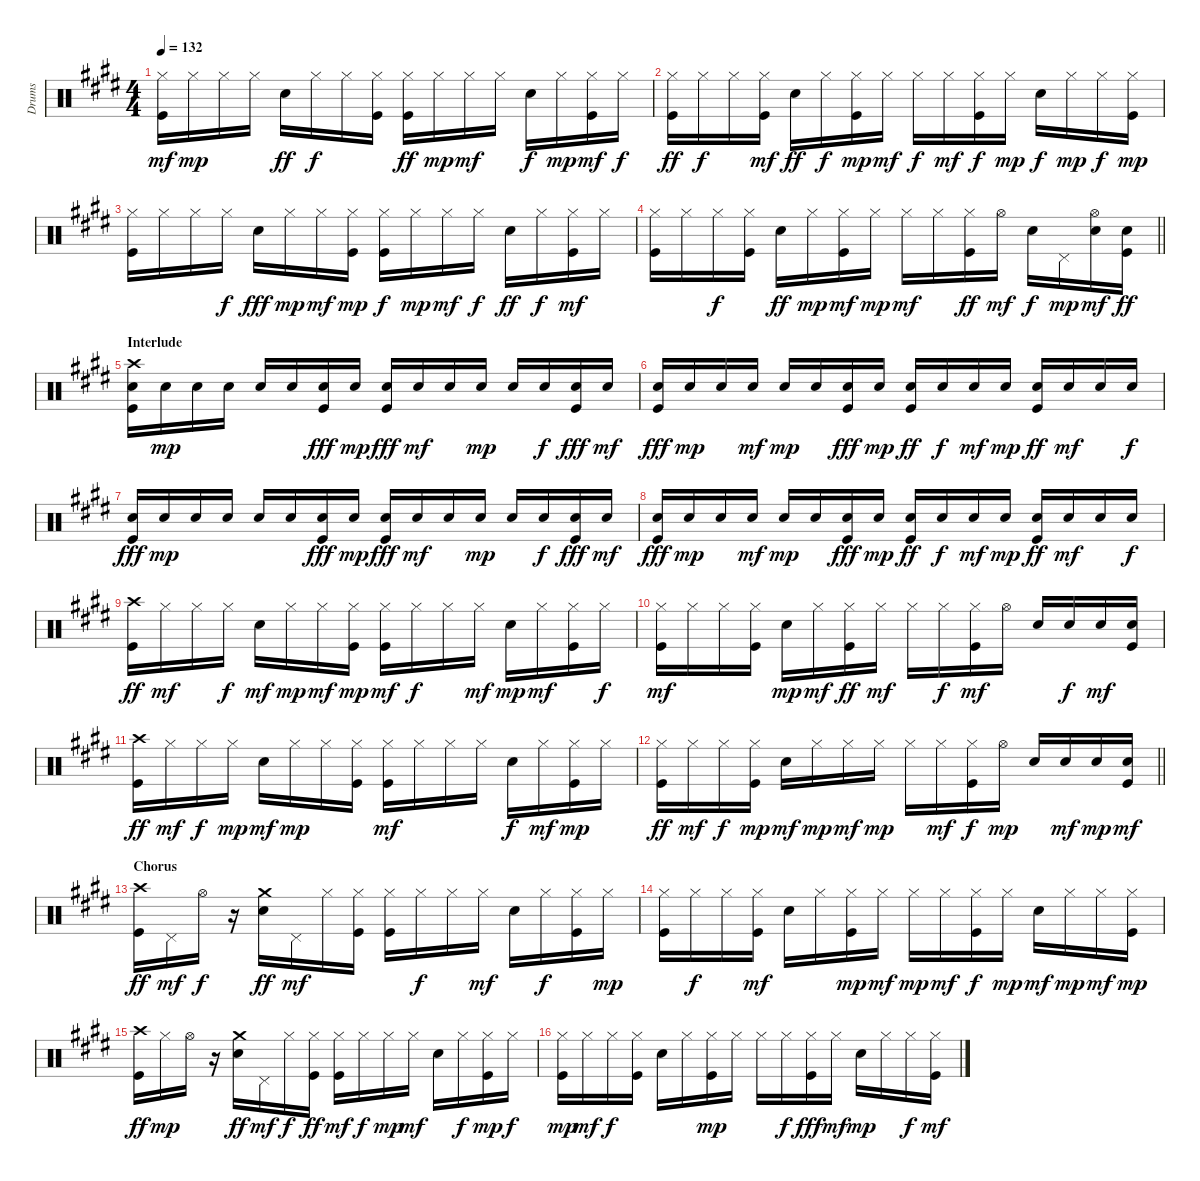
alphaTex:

\track ("Drums" "Drums") {instrument percussion}
\staff {score}
\articulation defaults
\ts (4 4)
\tempo 132
\clef neutral
\ks e
("Kick (hit)" "Hi-Hat (closed)").16{dy mf} "Hi-Hat (closed)".16{dy mp} "Hi-Hat (closed)".16 "Hi-Hat (closed)".16 "Snare (hit) 2".16{dy ff} "Hi-Hat (closed)".16{dy f} "Hi-Hat (closed)".16 ("Kick (hit)" "Hi-Hat (closed)").16 ("Kick (hit)" "Hi-Hat (closed)").16{dy ff} "Hi-Hat (closed)".16{dy mp} "Hi-Hat (closed)".16{dy mf} "Hi-Hat (closed)".16 "Snare (hit) 2".16{dy f} "Hi-Hat (closed)".16{dy mp} ("Kick (hit)" "Hi-Hat (closed)").16{dy mf} "Hi-Hat (closed)".16{dy f} |
("Kick (hit)" "Hi-Hat (closed)").16{dy ff} "Hi-Hat (closed)".16{dy f} "Hi-Hat (closed)".16 ("Kick (hit)" "Hi-Hat (closed)").16{dy mf} "Snare (hit) 2".16{dy ff} "Hi-Hat (closed)".16{dy f} ("Kick (hit)" "Hi-Hat (closed)").16{dy mp} "Hi-Hat (closed)".16{dy mf} "Hi-Hat (closed)".16{dy f} "Hi-Hat (closed)".16{dy mf} ("Kick (hit)" "Hi-Hat (closed)").16{dy f} "Hi-Hat (closed)".16{dy mp} "Snare (hit) 2".16{dy f} "Hi-Hat (closed)".16{dy mp} "Hi-Hat (closed)".16{dy f} ("Kick (hit)" "Hi-Hat (closed)").16{dy mp} |
("Kick (hit)" "Hi-Hat (closed)").16 "Hi-Hat (closed)".16 "Hi-Hat (closed)".16 "Hi-Hat (closed)".16{dy f} "Snare (hit) 2".16{dy fff} "Hi-Hat (closed)".16{dy mp} "Hi-Hat (closed)".16{dy mf} ("Kick (hit)" "Hi-Hat (closed)").16{dy mp} ("Kick (hit)" "Hi-Hat (closed)").16{dy f} "Hi-Hat (closed)".16{dy mp} "Hi-Hat (closed)".16{dy mf} "Hi-Hat (closed)".16{dy f} "Snare (hit) 2".16{dy ff} "Hi-Hat (closed)".16{dy f} ("Kick (hit)" "Hi-Hat (closed)").16{dy mf} "Hi-Hat (closed)".16 |
\barLineRight lightlight
("Kick (hit)" "Hi-Hat (closed)").16 "Hi-Hat (closed)".16 "Hi-Hat (closed)".16{dy f} ("Kick (hit)" "Hi-Hat (closed)").16 "Snare (hit) 2".16{dy ff} "Hi-Hat (closed)".16{dy mp} ("Kick (hit)" "Hi-Hat (closed)").16{dy mf} "Hi-Hat (closed)".16{dy mp} "Hi-Hat (closed)".16{dy mf} "Hi-Hat (closed)".16 ("Kick (hit)" "Hi-Hat (closed)").16{dy ff} "Hi-Hat (open)".16{dy mf} "Snare (hit) 2".16{dy f} "Pedal Hi-Hat (hit)".16{dy mp} ("Snare (hit) 2" "Hi-Hat (open)").16{dy mf} ("Kick (hit)" "Snare (hit) 2").16{dy ff} |
\section ("" "Interlude")
("Kick (hit)" "Snare (hit) 2" "Crash high (hit)").16 "Snare (hit) 2".16{dy mp} "Snare (hit) 2".16 "Snare (hit) 2".16 "Snare (hit) 2".16 "Snare (hit) 2".16 ("Kick (hit)" "Snare (hit) 2").16{dy fff} "Snare (hit) 2".16{dy mp} ("Kick (hit)" "Snare (hit) 2").16{dy fff} "Snare (hit) 2".16{dy mf} "Snare (hit) 2".16 "Snare (hit) 2".16{dy mp} "Snare (hit) 2".16 "Snare (hit) 2".16{dy f} ("Kick (hit)" "Snare (hit) 2").16{dy fff} "Snare (hit) 2".16{dy mf} |
("Kick (hit)" "Snare (hit) 2").16{dy fff} "Snare (hit) 2".16{dy mp} "Snare (hit) 2".16 "Snare (hit) 2".16{dy mf} "Snare (hit) 2".16{dy mp} "Snare (hit) 2".16 ("Kick (hit)" "Snare (hit) 2").16{dy fff} "Snare (hit) 2".16{dy mp} ("Kick (hit)" "Snare (hit) 2").16{dy ff} "Snare (hit) 2".16{dy f} "Snare (hit) 2".16{dy mf} "Snare (hit) 2".16{dy mp} ("Kick (hit)" "Snare (hit) 2").16{dy ff} "Snare (hit) 2".16{dy mf} "Snare (hit) 2".16 "Snare (hit) 2".16{dy f} |
("Kick (hit)" "Snare (hit) 2").16{dy fff} "Snare (hit) 2".16{dy mp} "Snare (hit) 2".16 "Snare (hit) 2".16 "Snare (hit) 2".16 "Snare (hit) 2".16 ("Kick (hit)" "Snare (hit) 2").16{dy fff} "Snare (hit) 2".16{dy mp} ("Kick (hit)" "Snare (hit) 2").16{dy fff} "Snare (hit) 2".16{dy mf} "Snare (hit) 2".16 "Snare (hit) 2".16{dy mp} "Snare (hit) 2".16 "Snare (hit) 2".16{dy f} ("Kick (hit)" "Snare (hit) 2").16{dy fff} "Snare (hit) 2".16{dy mf} |
("Kick (hit)" "Snare (hit) 2").16{dy fff} "Snare (hit) 2".16{dy mp} "Snare (hit) 2".16 "Snare (hit) 2".16{dy mf} "Snare (hit) 2".16{dy mp} "Snare (hit) 2".16 ("Kick (hit)" "Snare (hit) 2").16{dy fff} "Snare (hit) 2".16{dy mp} ("Kick (hit)" "Snare (hit) 2").16{dy ff} "Snare (hit) 2".16{dy f} "Snare (hit) 2".16{dy mf} "Snare (hit) 2".16{dy mp} ("Kick (hit)" "Snare (hit) 2").16{dy ff} "Snare (hit) 2".16{dy mf} "Snare (hit) 2".16 "Snare (hit) 2".16{dy f} |
("Kick (hit)" "Crash high (hit)").16{dy ff} "Hi-Hat (closed)".16{dy mf} "Hi-Hat (closed)".16 "Hi-Hat (closed)".16{dy f} "Snare (hit) 2".16{dy mf} "Hi-Hat (closed)".16{dy mp} "Hi-Hat (closed)".16{dy mf} ("Kick (hit)" "Hi-Hat (closed)").16{dy mp} ("Kick (hit)" "Hi-Hat (closed)").16{dy mf} "Hi-Hat (closed)".16{dy f} "Hi-Hat (closed)".16 "Hi-Hat (closed)".16{dy mf} "Snare (hit) 2".16{dy mp} "Hi-Hat (closed)".16{dy mf} ("Kick (hit)" "Hi-Hat (closed)").16 "Hi-Hat (closed)".16{dy f} |
("Kick (hit)" "Hi-Hat (closed)").16{dy mf} "Hi-Hat (closed)".16 "Hi-Hat (closed)".16 ("Kick (hit)" "Hi-Hat (closed)").16 "Snare (hit) 2".16{dy mp} "Hi-Hat (closed)".16{dy mf} ("Kick (hit)" "Hi-Hat (closed)").16{dy ff} "Hi-Hat (closed)".16{dy mf} "Hi-Hat (closed)".16 "Hi-Hat (closed)".16{dy f} ("Kick (hit)" "Hi-Hat (closed)").16{dy mf} "Hi-Hat (open)".16 "Snare (hit) 2".16 "Snare (hit) 2".16{dy f} "Snare (hit) 2".16{dy mf} ("Kick (hit)" "Snare (hit) 2").16 |
("Kick (hit)" "Crash high (hit)").16{dy ff} "Hi-Hat (closed)".16{dy mf} "Hi-Hat (closed)".16{dy f} "Hi-Hat (closed)".16{dy mp} "Snare (hit) 2".16{dy mf} "Hi-Hat (closed)".16{dy mp} "Hi-Hat (closed)".16 ("Kick (hit)" "Hi-Hat (closed)").16 ("Kick (hit)" "Hi-Hat (closed)").16{dy mf} "Hi-Hat (closed)".16 "Hi-Hat (closed)".16 "Hi-Hat (closed)".16 "Snare (hit) 2".16{dy f} "Hi-Hat (closed)".16{dy mf} ("Kick (hit)" "Hi-Hat (closed)").16{dy mp} "Hi-Hat (closed)".16 |
\barLineRight lightlight
("Kick (hit)" "Hi-Hat (closed)").16{dy ff} "Hi-Hat (closed)".16{dy mf} "Hi-Hat (closed)".16{dy f} ("Kick (hit)" "Hi-Hat (closed)").16{dy mp} "Snare (hit) 2".16{dy mf} "Hi-Hat (closed)".16{dy mp} "Hi-Hat (closed)".16{dy mf} "Hi-Hat (closed)".16{dy mp} "Hi-Hat (closed)".16 "Hi-Hat (closed)".16{dy mf} ("Kick (hit)" "Hi-Hat (closed)").16{dy f} "Hi-Hat (open)".16{dy mp} "Snare (hit) 2".16 "Snare (hit) 2".16{dy mf} "Snare (hit) 2".16{dy mp} ("Kick (hit)" "Snare (hit) 2").16{dy mf} |
\section ("" "Chorus")
("Kick (hit)" "Crash high (hit)").16{dy ff} "Pedal Hi-Hat (hit)".16{dy mf} "Hi-Hat (open)".16{dy f} r.16 ("Snare (hit) 2" "Crash medium (hit)").16{dy ff} "Pedal Hi-Hat (hit)".16{dy mf} "Hi-Hat (closed)".16 ("Kick (hit)" "Hi-Hat (closed)").16 ("Kick (hit)" "Hi-Hat (closed)").16 "Hi-Hat (closed)".16{dy f} "Hi-Hat (closed)".16 "Hi-Hat (closed)".16{dy mf} "Snare (hit) 2".16 "Hi-Hat (closed)".16{dy f} ("Kick (hit)" "Hi-Hat (closed)").16 "Hi-Hat (closed)".16{dy mp} |
("Kick (hit)" "Hi-Hat (closed)").16 "Hi-Hat (closed)".16{dy f} "Hi-Hat (closed)".16 ("Kick (hit)" "Hi-Hat (closed)").16{dy mf} "Snare (hit) 2".16 "Hi-Hat (closed)".16 ("Kick (hit)" "Hi-Hat (closed)").16{dy mp} "Hi-Hat (closed)".16{dy mf} "Hi-Hat (closed)".16{dy mp} "Hi-Hat (closed)".16{dy mf} ("Kick (hit)" "Hi-Hat (closed)").16{dy f} "Hi-Hat (closed)".16{dy mp} "Snare (hit) 2".16{dy mf} "Hi-Hat (closed)".16{dy mp} "Hi-Hat (closed)".16{dy mf} ("Kick (hit)" "Hi-Hat (closed)").16{dy mp} |
("Kick (hit)" "Crash high (hit)").16{dy ff} "Hi-Hat (closed)".16{dy mp} "Hi-Hat (open)".16 r.16 ("Snare (hit) 2" "Crash medium (hit)").16{dy ff} "Pedal Hi-Hat (hit)".16{dy mf} "Hi-Hat (closed)".16{dy f} ("Kick (hit)" "Hi-Hat (closed)").16{dy ff} ("Kick (hit)" "Hi-Hat (closed)").16{dy mf} "Hi-Hat (closed)".16{dy f} "Hi-Hat (closed)".16{dy mp} "Hi-Hat (closed)".16{dy mf} "Snare (hit) 2".16 "Hi-Hat (closed)".16{dy f} ("Kick (hit)" "Hi-Hat (closed)").16{dy mp} "Hi-Hat (closed)".16{dy f} |
("Kick (hit)" "Hi-Hat (closed)").16{dy mp} "Hi-Hat (closed)".16{dy mf} "Hi-Hat (closed)".16{dy f} ("Kick (hit)" "Hi-Hat (closed)").16 "Snare (hit) 2".16 "Hi-Hat (closed)".16 ("Kick (hit)" "Hi-Hat (closed)").16{dy mp} "Hi-Hat (closed)".16 "Hi-Hat (closed)".16 "Hi-Hat (closed)".16{dy f} ("Kick (hit)" "Hi-Hat (closed)").16{dy fff} "Hi-Hat (closed)".16{dy mf} "Snare (hit) 2".16{dy mp} "Hi-Hat (closed)".16 "Hi-Hat (closed)".16{dy f} ("Kick (hit)" "Hi-Hat (closed)").16{dy mf}
